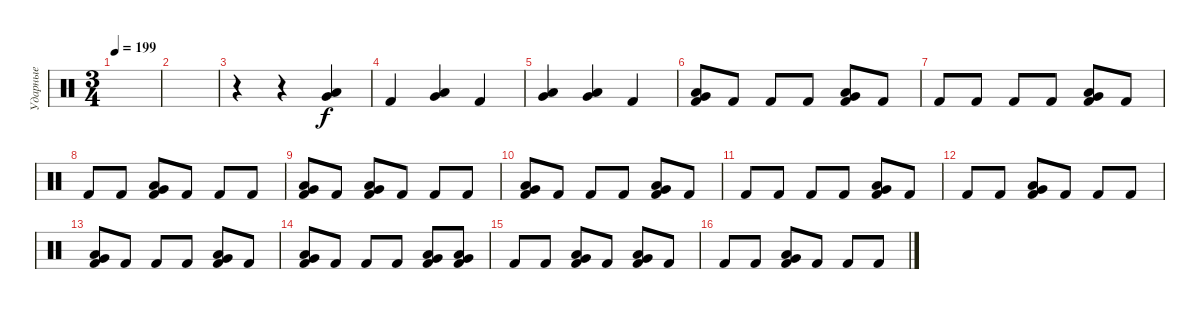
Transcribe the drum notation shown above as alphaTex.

\track ("Ударные" "Ударные") {instrument percussion}
\staff {score}
\articulation defaults
\ts (3 4)
\tempo 199
\clef neutral
\ks c
|
|
r.4 r.4 ("Very Low Tom (hit)" "Low Tom (hit)").4 |
"Kick (hit) 2".4 ("Very Low Tom (hit)" "Low Tom (hit)").4 "Kick (hit) 2".4 |
("Very Low Tom (hit)" "Low Tom (hit)").4 ("Very Low Tom (hit)" "Low Tom (hit)").4 "Kick (hit) 2".4 |
("Low Tom (hit)" "Very Low Tom (hit)" "Kick (hit) 2").8 "Kick (hit) 2".8 "Kick (hit) 2".8 "Kick (hit) 2".8 ("Low Tom (hit)" "Very Low Tom (hit)" "Kick (hit) 2").8 "Kick (hit) 2".8 |
"Kick (hit) 2".8 "Kick (hit) 2".8 "Kick (hit) 2".8 "Kick (hit) 2".8 ("Low Tom (hit)" "Very Low Tom (hit)" "Kick (hit) 2").8 "Kick (hit) 2".8 |
"Kick (hit) 2".8 "Kick (hit) 2".8 ("Low Tom (hit)" "Very Low Tom (hit)" "Kick (hit) 2").8 "Kick (hit) 2".8 "Kick (hit) 2".8 "Kick (hit) 2".8 |
("Low Tom (hit)" "Very Low Tom (hit)" "Kick (hit) 2").8 "Kick (hit) 2".8 ("Low Tom (hit)" "Very Low Tom (hit)" "Kick (hit) 2").8 "Kick (hit) 2".8 "Kick (hit) 2".8 "Kick (hit) 2".8 |
("Low Tom (hit)" "Very Low Tom (hit)" "Kick (hit) 2").8 "Kick (hit) 2".8 "Kick (hit) 2".8 "Kick (hit) 2".8 ("Low Tom (hit)" "Very Low Tom (hit)" "Kick (hit) 2").8 "Kick (hit) 2".8 |
"Kick (hit) 2".8 "Kick (hit) 2".8 "Kick (hit) 2".8 "Kick (hit) 2".8 ("Low Tom (hit)" "Very Low Tom (hit)" "Kick (hit) 2").8 "Kick (hit) 2".8 |
"Kick (hit) 2".8 "Kick (hit) 2".8 ("Low Tom (hit)" "Very Low Tom (hit)" "Kick (hit) 2").8 "Kick (hit) 2".8 "Kick (hit) 2".8 "Kick (hit) 2".8 |
("Low Tom (hit)" "Very Low Tom (hit)" "Kick (hit) 2").8 "Kick (hit) 2".8 "Kick (hit) 2".8 "Kick (hit) 2".8 ("Low Tom (hit)" "Very Low Tom (hit)" "Kick (hit) 2").8 "Kick (hit) 2".8 |
("Low Tom (hit)" "Very Low Tom (hit)" "Kick (hit) 2").8 "Kick (hit) 2".8 "Kick (hit) 2".8 "Kick (hit) 2".8 ("Low Tom (hit)" "Very Low Tom (hit)" "Kick (hit) 2").8 ("Low Tom (hit)" "Very Low Tom (hit)" "Kick (hit) 2").8 |
"Kick (hit) 2".8 "Kick (hit) 2".8 ("Low Tom (hit)" "Very Low Tom (hit)" "Kick (hit) 2").8 "Kick (hit) 2".8 ("Low Tom (hit)" "Very Low Tom (hit)" "Kick (hit) 2").8 "Kick (hit) 2".8 |
"Kick (hit) 2".8 "Kick (hit) 2".8 ("Low Tom (hit)" "Very Low Tom (hit)" "Kick (hit) 2").8 "Kick (hit) 2".8 "Kick (hit) 2".8 "Kick (hit) 2".8
